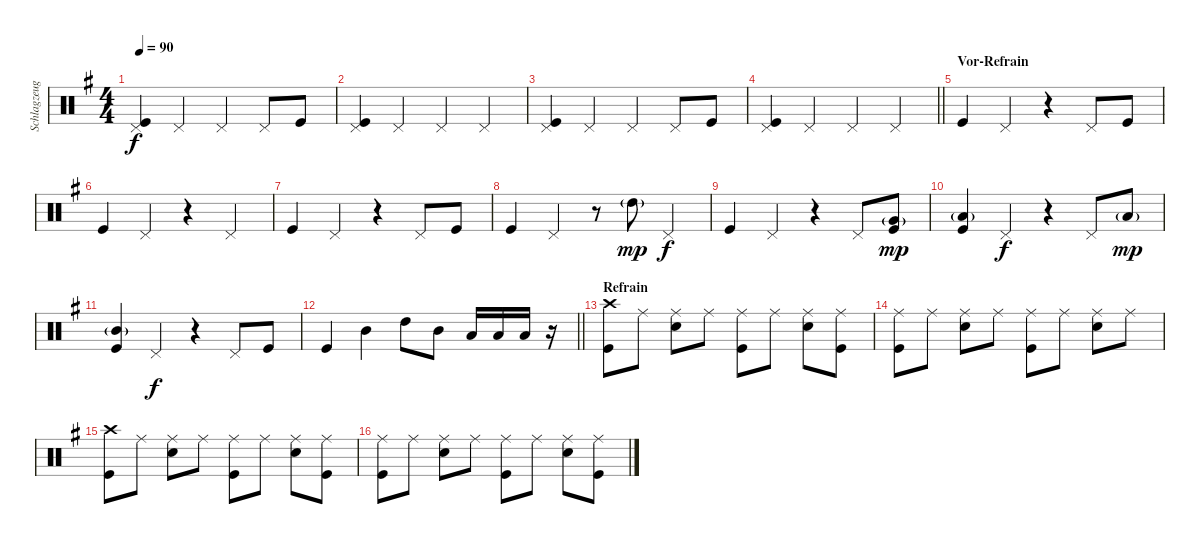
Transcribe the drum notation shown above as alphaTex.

\track ("Schlagzeug" "Schlagzeug") {instrument percussion}
\staff {score}
\articulation defaults
\ts (4 4)
\tempo 90
\clef neutral
\ks g
("Pedal Hi-Hat (hit)" "Kick (hit)").4{dy f} "Pedal Hi-Hat (hit)".4 "Pedal Hi-Hat (hit)".4 "Pedal Hi-Hat (hit)".8 "Kick (hit)".8 |
("Pedal Hi-Hat (hit)" "Kick (hit)").4 "Pedal Hi-Hat (hit)".4 "Pedal Hi-Hat (hit)".4 "Pedal Hi-Hat (hit)".4 |
("Pedal Hi-Hat (hit)" "Kick (hit)").4 "Pedal Hi-Hat (hit)".4 "Pedal Hi-Hat (hit)".4 "Pedal Hi-Hat (hit)".8 "Kick (hit)".8 |
\barLineRight lightlight
("Pedal Hi-Hat (hit)" "Kick (hit)").4 "Pedal Hi-Hat (hit)".4 "Pedal Hi-Hat (hit)".4 "Pedal Hi-Hat (hit)".4 |
\section ("" "Vor-Refrain")
"Kick (hit)".4 "Pedal Hi-Hat (hit)".4 r.4 "Pedal Hi-Hat (hit)".8 "Kick (hit)".8 |
"Kick (hit)".4 "Pedal Hi-Hat (hit)".4 r.4 "Pedal Hi-Hat (hit)".4 |
"Kick (hit)".4 "Pedal Hi-Hat (hit)".4 r.4 "Pedal Hi-Hat (hit)".8 "Kick (hit)".8 |
"Kick (hit)".4 "Pedal Hi-Hat (hit)".4 r.8 "High Tom (hit)"{g}.8{dy mp} "Pedal Hi-Hat (hit)".4{dy f} |
"Kick (hit)".4 "Pedal Hi-Hat (hit)".4 r.4 "Pedal Hi-Hat (hit)".8 ("Very Low Tom (hit)"{g} "Kick (hit)").8{dy mp} |
("Low Floor Tom (hit)"{g} "Kick (hit)").4 "Pedal Hi-Hat (hit)".4{dy f} r.4 "Pedal Hi-Hat (hit)".8 "Low Tom (hit)"{g}.8{dy mp} |
("Mid Tom (hit)"{g} "Kick (hit)").4 "Pedal Hi-Hat (hit)".4{dy f} r.4 "Pedal Hi-Hat (hit)".8 "Kick (hit)".8 |
\barLineRight lightlight "Kick (hit)".4 "Mid Tom (hit)".4 "High Tom (hit)".8 "Mid Tom (hit)".8 "Low Tom (hit)".16 "Low Tom (hit)".16 "Low Tom (hit)".16
r.16 |
\section ("" "Refrain")
("Crash high (hit)" "Kick (hit)").8 "Ride (middle)".8 ("Ride (middle)" "Snare (hit) 2").8 "Ride (middle)".8 ("Ride (middle)" "Kick (hit)").8 "Ride (middle)".8 ("Ride (middle)" "Snare (hit) 2").8 ("Ride (middle)" "Kick (hit)").8 |
("Ride (middle)" "Kick (hit)").8 "Ride (middle)".8 ("Ride (middle)" "Snare (hit) 2").8 "Ride (middle)".8 ("Ride (middle)" "Kick (hit)").8 "Ride (middle)".8 ("Ride (middle)" "Snare (hit) 2").8 "Ride (middle)".8 |
("Crash high (hit)" "Kick (hit)").8 "Ride (middle)".8 ("Ride (middle)" "Snare (hit) 2").8 "Ride (middle)".8 ("Ride (middle)" "Kick (hit)").8 "Ride (middle)".8 ("Ride (middle)" "Snare (hit) 2").8 ("Ride (middle)" "Kick (hit)").8 |
("Ride (middle)" "Kick (hit)").8 "Ride (middle)".8 ("Ride (middle)" "Snare (hit) 2").8 "Ride (middle)".8 ("Ride (middle)" "Kick (hit)").8 "Ride (middle)".8 ("Ride (middle)" "Snare (hit) 2").8 ("Ride (middle)" "Kick (hit)").8
